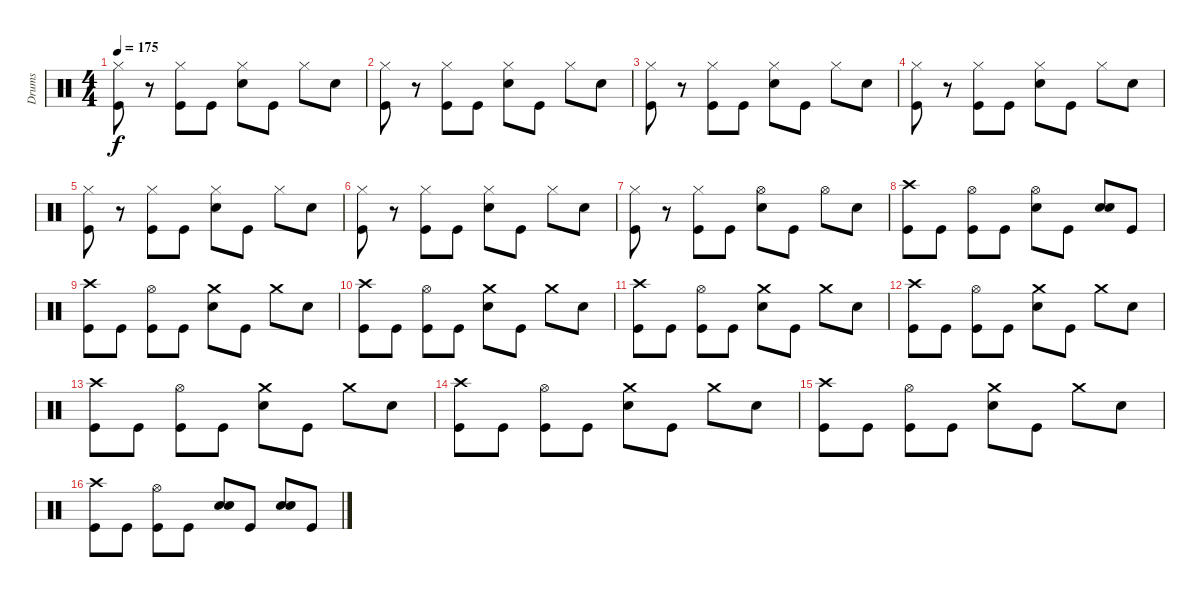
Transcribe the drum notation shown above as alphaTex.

\track ("Drums" "Drums") {instrument percussion}
\staff {score}
\articulation defaults
\ts (4 4)
\tempo 175
\clef neutral
\ks c
("Hi-Hat (closed)" "Kick (hit)").8{dy f} r.8 ("Hi-Hat (closed)" "Kick (hit)").8 "Kick (hit)".8 ("Hi-Hat (closed)" "Snare (hit) 2").8 "Kick (hit)".8 "Hi-Hat (closed)".8 "Snare (hit) 2".8 |
("Hi-Hat (closed)" "Kick (hit)").8 r.8 ("Hi-Hat (closed)" "Kick (hit)").8 "Kick (hit)".8 ("Hi-Hat (closed)" "Snare (hit) 2").8 "Kick (hit)".8 "Hi-Hat (closed)".8 "Snare (hit) 2".8 |
("Hi-Hat (closed)" "Kick (hit)").8 r.8 ("Hi-Hat (closed)" "Kick (hit)").8 "Kick (hit)".8 ("Hi-Hat (closed)" "Snare (hit) 2").8 "Kick (hit)".8 "Hi-Hat (closed)".8 "Snare (hit) 2".8 |
("Hi-Hat (closed)" "Kick (hit)").8 r.8 ("Hi-Hat (closed)" "Kick (hit)").8 "Kick (hit)".8 ("Hi-Hat (closed)" "Snare (hit) 2").8 "Kick (hit)".8 "Hi-Hat (closed)".8 "Snare (hit) 2".8 |
("Hi-Hat (closed)" "Kick (hit)").8 r.8 ("Hi-Hat (closed)" "Kick (hit)").8 "Kick (hit)".8 ("Hi-Hat (closed)" "Snare (hit) 2").8 "Kick (hit)".8 "Hi-Hat (closed)".8 "Snare (hit) 2".8 |
("Hi-Hat (closed)" "Kick (hit)").8 r.8 ("Hi-Hat (closed)" "Kick (hit)").8 "Kick (hit)".8 ("Hi-Hat (closed)" "Snare (hit) 2").8 "Kick (hit)".8 "Hi-Hat (closed)".8 "Snare (hit) 2".8 |
("Hi-Hat (closed)" "Kick (hit)").8 r.8 ("Hi-Hat (closed)" "Kick (hit)").8 "Kick (hit)".8 ("Hi-Hat (open)" "Snare (hit) 2").8 "Kick (hit)".8 "Hi-Hat (open)".8 "Snare (hit) 2".8 |
("Crash high (hit)" "Kick (hit)").8 "Kick (hit)".8 ("Hi-Hat (open)" "Kick (hit)").8 "Kick (hit)".8 ("Hi-Hat (open)" "Snare (hit) 2").8 "Kick (hit)".8 ("Snare (hit) 2" "Snare (hit) 2").8 "Kick (hit)".8 |
("Crash high (hit)" "Kick (hit)").8 "Kick (hit)".8 ("Hi-Hat (open)" "Kick (hit)").8 "Kick (hit)".8 ("Crash medium (hit)" "Snare (hit) 2").8 "Kick (hit)".8 "Crash medium (hit)".8 "Snare (hit) 2".8 |
("Crash high (hit)" "Kick (hit)").8 "Kick (hit)".8 ("Hi-Hat (open)" "Kick (hit)").8 "Kick (hit)".8 ("Crash medium (hit)" "Snare (hit) 2").8 "Kick (hit)".8 "Crash medium (hit)".8 "Snare (hit) 2".8 |
("Crash high (hit)" "Kick (hit)").8 "Kick (hit)".8 ("Hi-Hat (open)" "Kick (hit)").8 "Kick (hit)".8 ("Crash medium (hit)" "Snare (hit) 2").8 "Kick (hit)".8 "Crash medium (hit)".8 "Snare (hit) 2".8 |
("Crash high (hit)" "Kick (hit)").8 "Kick (hit)".8 ("Hi-Hat (open)" "Kick (hit)").8 "Kick (hit)".8 ("Crash medium (hit)" "Snare (hit) 2").8 "Kick (hit)".8 "Crash medium (hit)".8 "Snare (hit) 2".8 |
("Crash high (hit)" "Kick (hit)").8 "Kick (hit)".8 ("Hi-Hat (open)" "Kick (hit)").8 "Kick (hit)".8 ("Crash medium (hit)" "Snare (hit) 2").8 "Kick (hit)".8 "Crash medium (hit)".8 "Snare (hit) 2".8 |
("Crash high (hit)" "Kick (hit)").8 "Kick (hit)".8 ("Hi-Hat (open)" "Kick (hit)").8 "Kick (hit)".8 ("Crash medium (hit)" "Snare (hit) 2").8 "Kick (hit)".8 "Crash medium (hit)".8 "Snare (hit) 2".8 |
("Crash high (hit)" "Kick (hit)").8 "Kick (hit)".8 ("Hi-Hat (open)" "Kick (hit)").8 "Kick (hit)".8 ("Crash medium (hit)" "Snare (hit) 2").8 "Kick (hit)".8 "Crash medium (hit)".8 "Snare (hit) 2".8 |
("Crash high (hit)" "Kick (hit)").8 "Kick (hit)".8 ("Hi-Hat (open)" "Kick (hit)").8 "Kick (hit)".8 ("Snare (hit) 2" "Snare (hit) 2").8 "Kick (hit)".8 ("Snare (hit) 2" "Snare (hit) 2").8 "Kick (hit)".8
